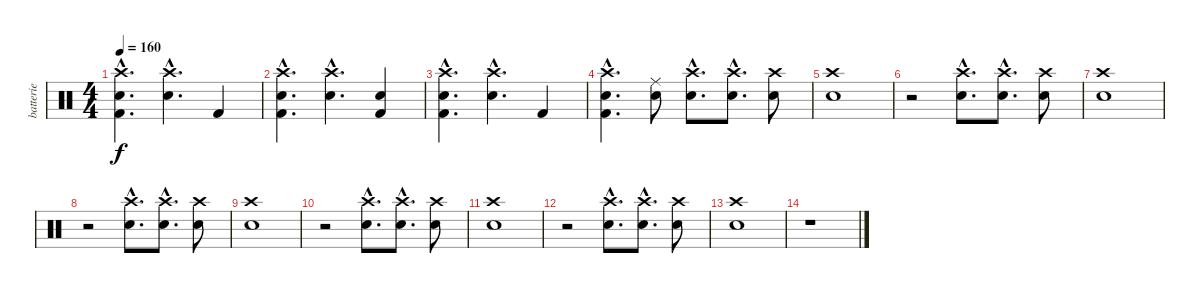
\track ("batterie" "batterie") {instrument percussion}
\staff {score}
\articulation defaults
\ts (4 4)
\tempo 160
\clef neutral
\ks c
("Kick (hit) 2"{hac} "Snare (hit) 2"{hac} "Crash high (hit)"{hac}).4{d dy f} ("Snare (hit) 2"{hac} "Crash high (hit)"{hac}).4{d} "Kick (hit) 2".4 |
("Kick (hit) 2"{hac} "Snare (hit) 2"{hac} "Crash high (hit)"{hac}).4{d} ("Snare (hit) 2"{hac} "Crash high (hit)"{hac}).4{d} ("Snare (hit) 2" "Kick (hit) 2").4 |
("Kick (hit) 2"{hac} "Snare (hit) 2"{hac} "Crash high (hit)"{hac}).4{d} ("Snare (hit) 2"{hac} "Crash high (hit)"{hac}).4{d} "Kick (hit) 2".4 |
("Kick (hit) 2"{hac} "Snare (hit) 2"{hac} "Crash high (hit)"{hac}).4{d} ("Ride (middle)" "Snare (hit) 2").8 ("Crash high (hit)"{hac} "Snare (hit) 2"{hac}).8{d} ("Crash high (hit)"{hac} "Snare (hit) 2"{hac}).8{d} ("Crash high (hit)" "Snare (hit) 2").8 |
("Crash high (hit)" "Snare (hit) 2").1 |
r.2 ("Crash high (hit)"{hac} "Snare (hit) 2"{hac}).8{d} ("Crash high (hit)"{hac} "Snare (hit) 2"{hac}).8{d} ("Crash high (hit)" "Snare (hit) 2").8 |
("Crash high (hit)" "Snare (hit) 2").1 |
r.2 ("Crash high (hit)"{hac} "Snare (hit) 2"{hac}).8{d} ("Crash high (hit)"{hac} "Snare (hit) 2"{hac}).8{d} ("Crash high (hit)" "Snare (hit) 2").8 |
("Crash high (hit)" "Snare (hit) 2").1 |
r.2 ("Crash high (hit)"{hac} "Snare (hit) 2"{hac}).8{d} ("Crash high (hit)"{hac} "Snare (hit) 2"{hac}).8{d} ("Crash high (hit)" "Snare (hit) 2").8 |
("Crash high (hit)" "Snare (hit) 2").1 |
r.2 ("Crash high (hit)"{hac} "Snare (hit) 2"{hac}).8{d} ("Crash high (hit)"{hac} "Snare (hit) 2"{hac}).8{d} ("Crash high (hit)" "Snare (hit) 2").8 |
("Crash high (hit)" "Snare (hit) 2").1 |
r.1
